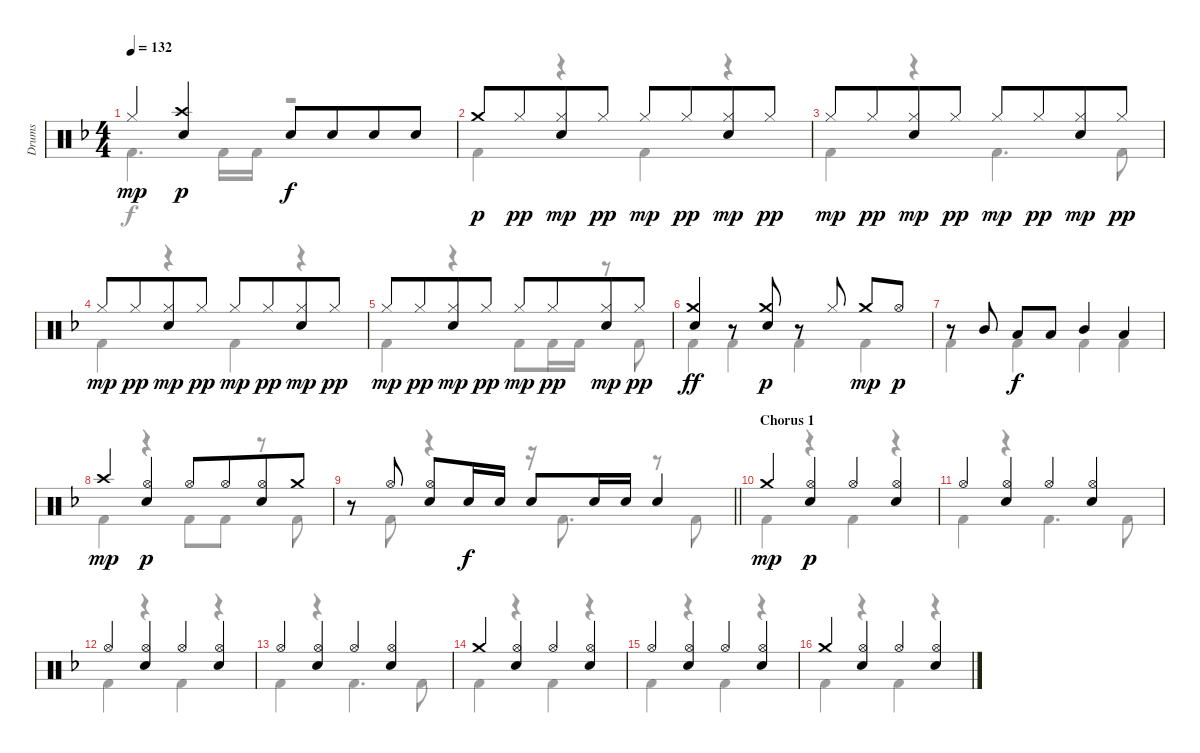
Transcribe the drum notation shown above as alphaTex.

\track ("Drums" "Drums") {instrument percussion}
\staff {score}
\articulation defaults
\voice
\ts (4 4)
\tempo 132
\clef neutral
\ks f "Hi-Hat (closed)".4{dy mp}
("Crash high (hit)" "Electric Snare (hit)").4{dy p} "Electric Snare (hit)".8{dy f} "Electric Snare (hit)".8{beam merge} "Electric Snare (hit)".8 "Electric Snare (hit)".8 |
"Crash medium (hit)".8{dy p} "Hi-Hat (closed)".8{dy pp beam merge} ("Hi-Hat (closed)" "Electric Snare (hit)").8{dy mp} "Hi-Hat (closed)".8{dy pp} "Hi-Hat (closed)".8{dy mp} "Hi-Hat (closed)".8{dy pp beam merge} ("Hi-Hat (closed)" "Electric Snare (hit)").8{dy mp} "Hi-Hat (closed)".8{dy pp} |
"Hi-Hat (closed)".8{dy mp} "Hi-Hat (closed)".8{dy pp beam merge} ("Hi-Hat (closed)" "Electric Snare (hit)").8{dy mp} "Hi-Hat (closed)".8{dy pp} "Hi-Hat (closed)".8{dy mp} "Hi-Hat (closed)".8{dy pp beam merge} ("Hi-Hat (closed)" "Electric Snare (hit)").8{dy mp} "Hi-Hat (closed)".8{dy pp} |
"Hi-Hat (closed)".8{dy mp} "Hi-Hat (closed)".8{dy pp beam merge} ("Hi-Hat (closed)" "Electric Snare (hit)").8{dy mp} "Hi-Hat (closed)".8{dy pp} "Hi-Hat (closed)".8{dy mp} "Hi-Hat (closed)".8{dy pp beam merge} ("Hi-Hat (closed)" "Electric Snare (hit)").8{dy mp} "Hi-Hat (closed)".8{dy pp} |
"Hi-Hat (closed)".8{dy mp} "Hi-Hat (closed)".8{dy pp beam merge} ("Hi-Hat (closed)" "Electric Snare (hit)").8{dy mp} "Hi-Hat (closed)".8{dy pp} "Hi-Hat (closed)".8{dy mp} "Hi-Hat (closed)".8{dy pp beam merge} ("Hi-Hat (closed)" "Electric Snare (hit)").8{dy mp} "Hi-Hat (closed)".8{dy pp} |
("Crash medium (hit)" "Electric Snare (hit)").4{dy ff} r.8 ("Electric Snare (hit)" "Crash medium (hit)").8{dy p} r.8 "Hi-Hat (closed)".8 "Crash medium (hit)".8{dy mp} "Hi-Hat (open)".8{dy p} |
r.8 "Mid Tom (hit)".8 "Low Tom (hit)".8{dy f} "Low Tom (hit)".8 "Mid Tom (hit)".4 "Low Tom (hit)".4 |
"Crash high (hit)".4{dy mp} ("Electric Snare (hit)" "Hi-Hat (open)").4{dy p} "Hi-Hat (open)".8 "Hi-Hat (open)".8{beam merge} ("Hi-Hat (open)" "Electric Snare (hit)").8 "Crash medium (hit)".8 |
\barLineRight lightlight
r.8 "Hi-Hat (open)".8 ("Hi-Hat (open)" "Electric Snare (hit)").8 "Electric Snare (hit)".16{dy f} "Electric Snare (hit)".16 "Electric Snare (hit)".8 "Electric Snare (hit)".16 "Electric Snare (hit)".16 "Electric Snare (hit)".4 |
\section ("" "Chorus 1")
"Crash medium (hit)".4{dy mp} ("Hi-Hat (open)" "Electric Snare (hit)").4{dy p} "Hi-Hat (open)".4 ("Hi-Hat (open)" "Electric Snare (hit)").4 |
"Hi-Hat (open)".4 ("Hi-Hat (open)" "Electric Snare (hit)").4 "Hi-Hat (open)".4 ("Hi-Hat (open)" "Electric Snare (hit)").4 |
"Hi-Hat (open)".4 ("Hi-Hat (open)" "Electric Snare (hit)").4 "Hi-Hat (open)".4 ("Hi-Hat (open)" "Electric Snare (hit)").4 |
"Hi-Hat (open)".4 ("Hi-Hat (open)" "Electric Snare (hit)").4 "Hi-Hat (open)".4 ("Hi-Hat (open)" "Electric Snare (hit)").4 |
"Crash medium (hit)".4 ("Hi-Hat (open)" "Electric Snare (hit)").4 "Hi-Hat (open)".4 ("Hi-Hat (open)" "Electric Snare (hit)").4 |
"Hi-Hat (open)".4 ("Hi-Hat (open)" "Electric Snare (hit)").4 "Hi-Hat (open)".4 ("Hi-Hat (open)" "Electric Snare (hit)").4 |
"Crash medium (hit)".4 ("Hi-Hat (open)" "Electric Snare (hit)").4 "Hi-Hat (open)".4 ("Hi-Hat (open)" "Electric Snare (hit)").4
\voice
\clef neutral
\ottava regular
\simile none
\ks f "Kick (hit) 2".4{d dy f} "Kick (hit) 2".16 "Kick (hit) 2".16
r.2 |
"Kick (hit) 2".4 r.4 "Kick (hit) 2".4 r.4 |
"Kick (hit) 2".4 r.4 "Kick (hit) 2".4{d} "Kick (hit) 2".8 |
"Kick (hit) 2".4 r.4 "Kick (hit) 2".4 r.4 |
"Kick (hit) 2".4 r.4 "Kick (hit) 2".8 "Kick (hit) 2".16 "Kick (hit) 2".16 r.8 "Kick (hit) 2".8 |
"Kick (hit) 2".4 "Kick (hit) 2".4 "Kick (hit) 2".4 "Kick (hit) 2".4 |
"Kick (hit) 2".4 "Kick (hit) 2".4 "Kick (hit) 2".4 "Kick (hit) 2".4 |
"Kick (hit) 2".4 r.4 "Kick (hit) 2".8 "Kick (hit) 2".8 r.8 "Kick (hit) 2".8 |
\barLineRight lightlight
r.8 "Kick (hit) 2".8 r.4 r.16 "Kick (hit) 2".8{d} r.8 "Kick (hit) 2".8 |
"Kick (hit) 2".4 r.4 "Kick (hit) 2".4 r.4 |
"Kick (hit) 2".4 r.4 "Kick (hit) 2".4{d} "Kick (hit) 2".8 |
"Kick (hit) 2".4 r.4 "Kick (hit) 2".4 r.4 |
"Kick (hit) 2".4 r.4 "Kick (hit) 2".4{d} "Kick (hit) 2".8 |
"Kick (hit) 2".4 r.4 "Kick (hit) 2".4 r.4 |
"Kick (hit) 2".4 r.4 "Kick (hit) 2".4 r.4 |
"Kick (hit) 2".4 r.4 "Kick (hit) 2".4 r.4
